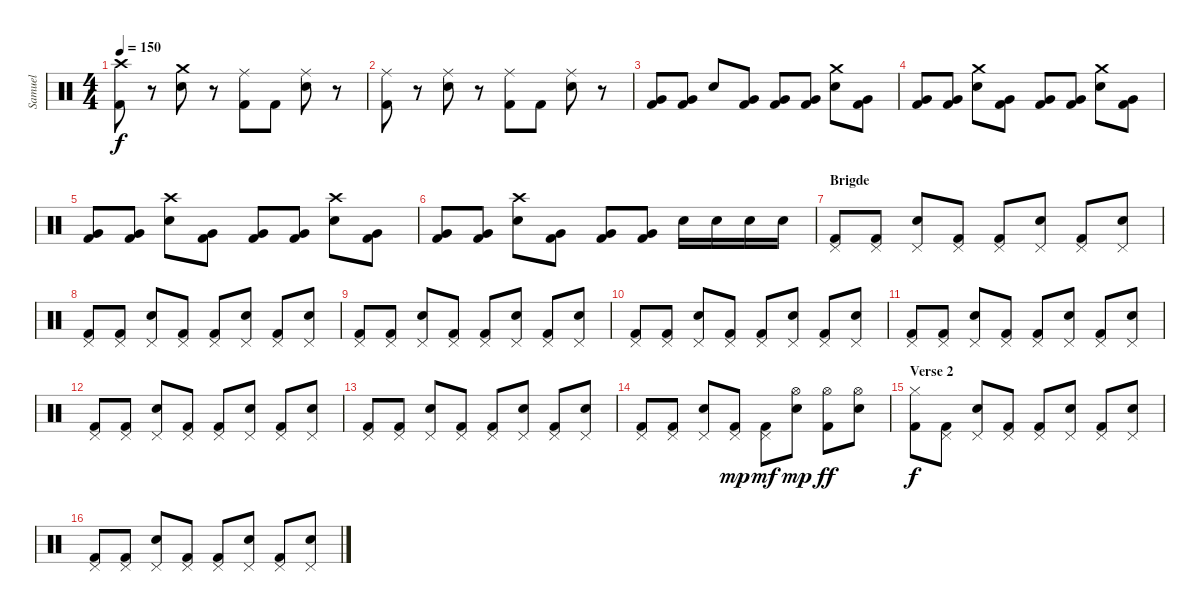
\track ("Samuel" "Samuel") {instrument percussion}
\staff {score}
\articulation defaults
\ts (4 4)
\tempo 150
\clef neutral
\ks c
("Crash high (hit)" "Kick (hit) 2").8{dy f} r.8 ("Crash medium (hit)" "Snare (hit) 2").8 r.8 ("Ride (middle)" "Kick (hit) 2").8 "Kick (hit) 2".8 ("Ride (middle)" "Snare (hit) 2").8 r.8 |
("Ride (middle)" "Kick (hit) 2").8 r.8 ("Ride (middle)" "Snare (hit) 2").8 r.8 ("Ride (middle)" "Kick (hit) 2").8 "Kick (hit) 2".8 ("Ride (middle)" "Snare (hit) 2").8 r.8 |
("Very Low Tom (hit)" "Kick (hit) 2").8 ("Very Low Tom (hit)" "Kick (hit) 2").8 "Snare (hit) 2".8 ("Very Low Tom (hit)" "Kick (hit) 2").8 ("Very Low Tom (hit)" "Kick (hit) 2").8 ("Very Low Tom (hit)" "Kick (hit) 2").8 ("Crash medium (hit)" "Snare (hit) 2").8 ("Very Low Tom (hit)" "Kick (hit) 2").8 |
("Very Low Tom (hit)" "Kick (hit) 2").8 ("Very Low Tom (hit)" "Kick (hit) 2").8 ("Crash medium (hit)" "Snare (hit) 2").8 ("Very Low Tom (hit)" "Kick (hit) 2").8 ("Very Low Tom (hit)" "Kick (hit) 2").8 ("Very Low Tom (hit)" "Kick (hit) 2").8 ("Crash medium (hit)" "Snare (hit) 2").8 ("Very Low Tom (hit)" "Kick (hit) 2").8 |
("Very Low Tom (hit)" "Kick (hit) 2").8 ("Very Low Tom (hit)" "Kick (hit) 2").8 ("Crash high (hit)" "Snare (hit) 2").8 ("Very Low Tom (hit)" "Kick (hit) 2").8 ("Very Low Tom (hit)" "Kick (hit) 2").8 ("Very Low Tom (hit)" "Kick (hit) 2").8 ("Crash high (hit)" "Snare (hit) 2").8 ("Very Low Tom (hit)" "Kick (hit) 2").8 |
("Very Low Tom (hit)" "Kick (hit) 2").8 ("Very Low Tom (hit)" "Kick (hit) 2").8 ("Crash high (hit)" "Snare (hit) 2").8 ("Very Low Tom (hit)" "Kick (hit) 2").8 ("Very Low Tom (hit)" "Kick (hit) 2").8 ("Very Low Tom (hit)" "Kick (hit) 2").8 "Snare (hit) 2".16 "Snare (hit) 2".16 "Snare (hit) 2".16 "Snare (hit) 2".16 |
\section ("" "Brigde")
("Pedal Hi-Hat (hit)" "Kick (hit) 2").8 ("Pedal Hi-Hat (hit)" "Kick (hit) 2").8 ("Pedal Hi-Hat (hit)" "Snare (hit) 2").8 ("Pedal Hi-Hat (hit)" "Kick (hit) 2").8 ("Pedal Hi-Hat (hit)" "Kick (hit) 2").8 ("Pedal Hi-Hat (hit)" "Snare (hit) 2").8 ("Pedal Hi-Hat (hit)" "Kick (hit) 2").8 ("Pedal Hi-Hat (hit)" "Snare (hit) 2").8 |
("Pedal Hi-Hat (hit)" "Kick (hit) 2").8 ("Pedal Hi-Hat (hit)" "Kick (hit) 2").8 ("Pedal Hi-Hat (hit)" "Snare (hit) 2").8 ("Pedal Hi-Hat (hit)" "Kick (hit) 2").8 ("Pedal Hi-Hat (hit)" "Kick (hit) 2").8 ("Pedal Hi-Hat (hit)" "Snare (hit) 2").8 ("Pedal Hi-Hat (hit)" "Kick (hit) 2").8 ("Pedal Hi-Hat (hit)" "Snare (hit) 2").8 |
("Pedal Hi-Hat (hit)" "Kick (hit) 2").8 ("Pedal Hi-Hat (hit)" "Kick (hit) 2").8 ("Pedal Hi-Hat (hit)" "Snare (hit) 2").8 ("Pedal Hi-Hat (hit)" "Kick (hit) 2").8 ("Pedal Hi-Hat (hit)" "Kick (hit) 2").8 ("Pedal Hi-Hat (hit)" "Snare (hit) 2").8 ("Pedal Hi-Hat (hit)" "Kick (hit) 2").8 ("Pedal Hi-Hat (hit)" "Snare (hit) 2").8 |
("Pedal Hi-Hat (hit)" "Kick (hit) 2").8 ("Pedal Hi-Hat (hit)" "Kick (hit) 2").8 ("Pedal Hi-Hat (hit)" "Snare (hit) 2").8 ("Pedal Hi-Hat (hit)" "Kick (hit) 2").8 ("Pedal Hi-Hat (hit)" "Kick (hit) 2").8 ("Pedal Hi-Hat (hit)" "Snare (hit) 2").8 ("Pedal Hi-Hat (hit)" "Kick (hit) 2").8 ("Pedal Hi-Hat (hit)" "Snare (hit) 2").8 |
("Pedal Hi-Hat (hit)" "Kick (hit) 2").8 ("Pedal Hi-Hat (hit)" "Kick (hit) 2").8 ("Pedal Hi-Hat (hit)" "Snare (hit) 2").8 ("Pedal Hi-Hat (hit)" "Kick (hit) 2").8 ("Pedal Hi-Hat (hit)" "Kick (hit) 2").8 ("Pedal Hi-Hat (hit)" "Snare (hit) 2").8 ("Pedal Hi-Hat (hit)" "Kick (hit) 2").8 ("Pedal Hi-Hat (hit)" "Snare (hit) 2").8 |
("Pedal Hi-Hat (hit)" "Kick (hit) 2").8 ("Pedal Hi-Hat (hit)" "Kick (hit) 2").8 ("Pedal Hi-Hat (hit)" "Snare (hit) 2").8 ("Pedal Hi-Hat (hit)" "Kick (hit) 2").8 ("Pedal Hi-Hat (hit)" "Kick (hit) 2").8 ("Pedal Hi-Hat (hit)" "Snare (hit) 2").8 ("Pedal Hi-Hat (hit)" "Kick (hit) 2").8 ("Pedal Hi-Hat (hit)" "Snare (hit) 2").8 |
("Pedal Hi-Hat (hit)" "Kick (hit) 2").8 ("Pedal Hi-Hat (hit)" "Kick (hit) 2").8 ("Pedal Hi-Hat (hit)" "Snare (hit) 2").8 ("Pedal Hi-Hat (hit)" "Kick (hit) 2").8 ("Pedal Hi-Hat (hit)" "Kick (hit) 2").8 ("Pedal Hi-Hat (hit)" "Snare (hit) 2").8 ("Pedal Hi-Hat (hit)" "Kick (hit) 2").8 ("Pedal Hi-Hat (hit)" "Snare (hit) 2").8 |
("Pedal Hi-Hat (hit)" "Kick (hit) 2").8 ("Pedal Hi-Hat (hit)" "Kick (hit) 2").8 ("Pedal Hi-Hat (hit)" "Snare (hit) 2").8 ("Pedal Hi-Hat (hit)" "Kick (hit) 2").8{dy mp} ("Pedal Hi-Hat (hit)" "Kick (hit) 2").8{dy mf} ("Hi-Hat (open)" "Snare (hit) 2").8{dy mp} ("Hi-Hat (open)" "Kick (hit) 2").8{dy ff} ("Hi-Hat (open)" "Snare (hit) 2").8 |
\section ("" "Verse 2")
("Hi-Hat (closed)" "Kick (hit) 2").8{dy f} ("Pedal Hi-Hat (hit)" "Kick (hit) 2").8 ("Pedal Hi-Hat (hit)" "Snare (hit) 2").8 ("Pedal Hi-Hat (hit)" "Kick (hit) 2").8 ("Pedal Hi-Hat (hit)" "Kick (hit) 2").8 ("Pedal Hi-Hat (hit)" "Snare (hit) 2").8 ("Pedal Hi-Hat (hit)" "Kick (hit) 2").8 ("Pedal Hi-Hat (hit)" "Snare (hit) 2").8 |
("Pedal Hi-Hat (hit)" "Kick (hit) 2").8 ("Pedal Hi-Hat (hit)" "Kick (hit) 2").8 ("Pedal Hi-Hat (hit)" "Snare (hit) 2").8 ("Pedal Hi-Hat (hit)" "Kick (hit) 2").8 ("Pedal Hi-Hat (hit)" "Kick (hit) 2").8 ("Pedal Hi-Hat (hit)" "Snare (hit) 2").8 ("Pedal Hi-Hat (hit)" "Kick (hit) 2").8 ("Pedal Hi-Hat (hit)" "Snare (hit) 2").8
